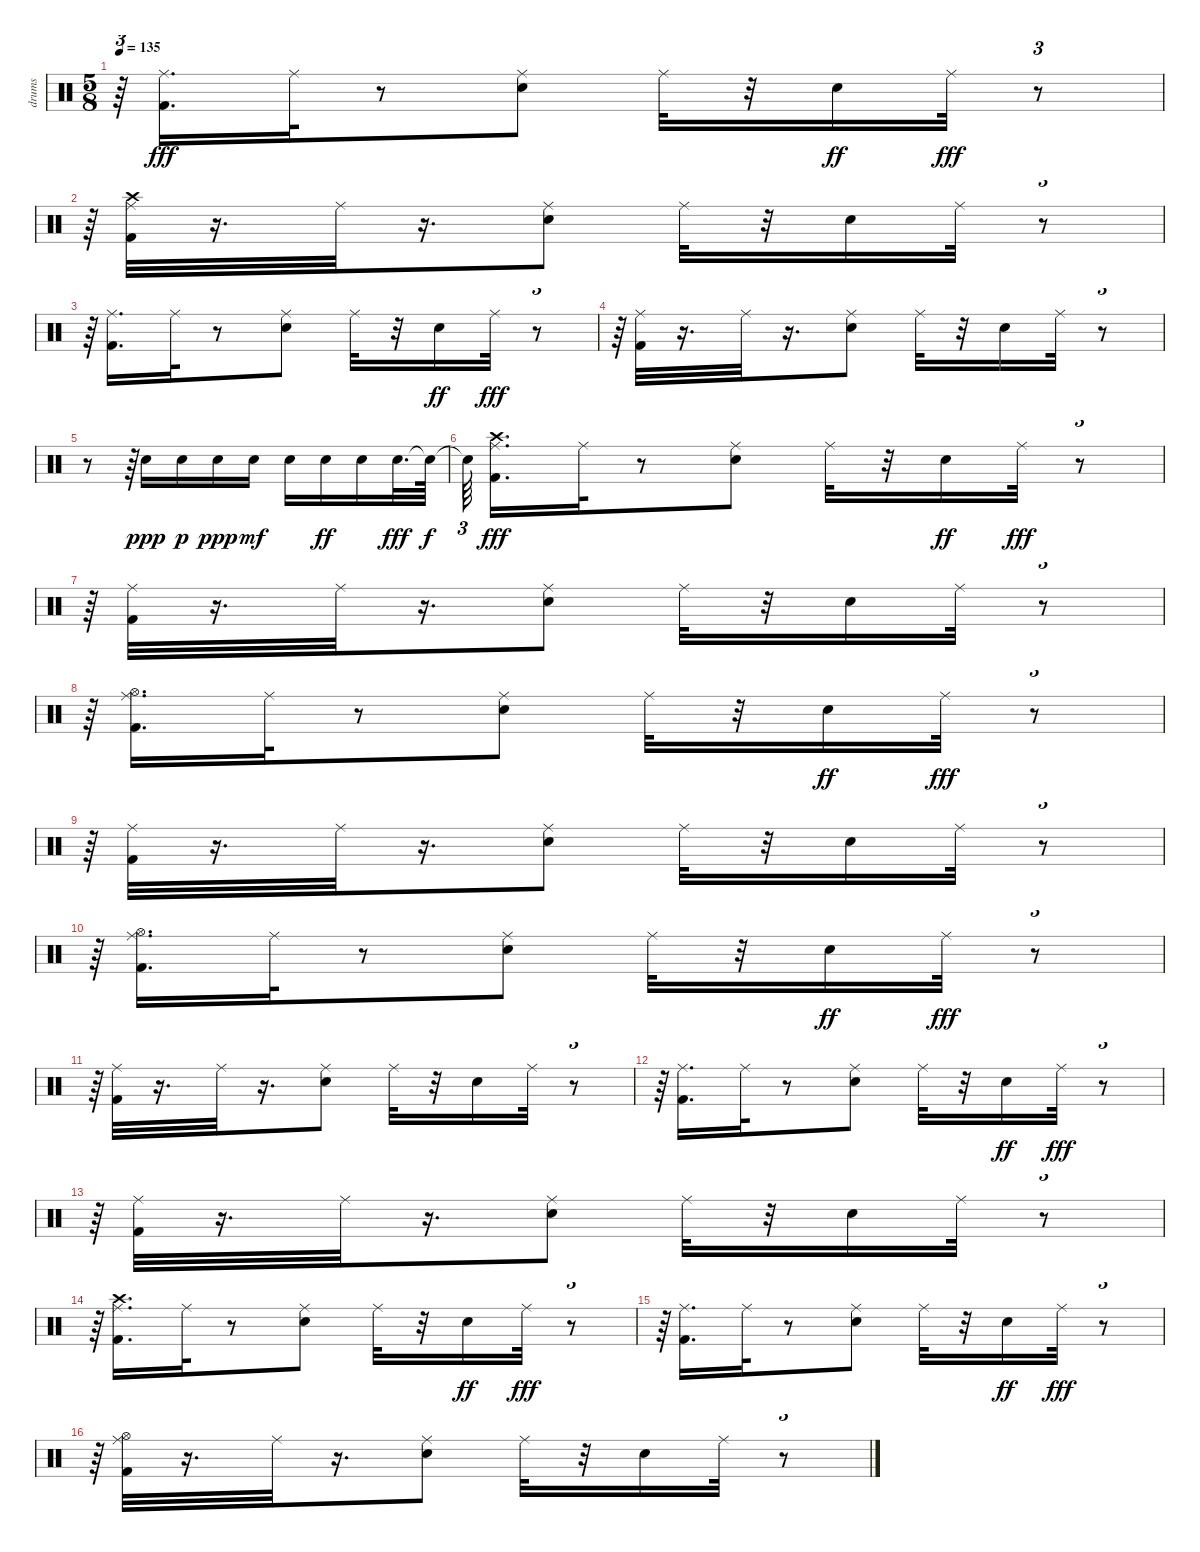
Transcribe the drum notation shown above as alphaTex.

\track ("drums               " "drums     ") {instrument percussion}
\staff {score}
\articulation defaults
\ts (5 8)
\tempo 135
\clef neutral
\ks c
r.64{tu (3 2) dy fff} ("Kick (hit) 2" "Ride (middle)").16{d} "Ride (middle)".32 r.8 ("Snare (hit) 2" "Ride (middle)").8 "Ride (middle)".32 r.32 "Snare (hit) 2".16{dy ff} "Ride (middle)".32{dy fff} r.8{tu (3 2)} |
r.64{tu (3 2)} ("Kick (hit) 2" "Crash high (hit)" "Ride (middle)").32 r.16{d} "Ride (middle)".32 r.16{d} ("Snare (hit) 2" "Ride (middle)").8 "Ride (middle)".32 r.32 "Snare (hit) 2".16 "Ride (middle)".32 r.8{tu (3 2)} |
r.64{tu (3 2)} ("Kick (hit) 2" "Ride (middle)").16{d} "Ride (middle)".32 r.8 ("Snare (hit) 2" "Ride (middle)").8 "Ride (middle)".32 r.32 "Snare (hit) 2".16{dy ff} "Ride (middle)".32{dy fff} r.8{tu (3 2)} |
r.64{tu (3 2)} ("Kick (hit) 2" "Ride (middle)").32 r.16{d} "Ride (middle)".32 r.16{d} ("Snare (hit) 2" "Ride (middle)").8 "Ride (middle)".32 r.32 "Snare (hit) 2".16 "Ride (middle)".32 r.8{tu (3 2)} |
r.8 r.64{tu (3 2)} "Snare (hit) 2".16{dy ppp} "Snare (hit) 2".16{dy p} "Snare (hit) 2".16{dy ppp} "Snare (hit) 2".16{dy mf} "Snare (hit) 2".16 "Snare (hit) 2".16{dy ff} "Snare (hit) 2".16 "Snare (hit) 2".32{d dy fff} "Snare (hit)"{t}.64{dy f} |
"Snare (hit)"{t}.64{tu (3 2)} ("Kick (hit) 2" "Crash high (hit)" "Ride (middle)").16{d dy fff} "Ride (middle)".32 r.8 ("Snare (hit) 2" "Ride (middle)").8 "Ride (middle)".32 r.32 "Snare (hit) 2".16{dy ff} "Ride (middle)".32{dy fff} r.8{tu (3 2)} |
r.64{tu (3 2)} ("Kick (hit) 2" "Ride (middle)").32 r.16{d} "Ride (middle)".32 r.16{d} ("Snare (hit) 2" "Ride (middle)").8 "Ride (middle)".32 r.32 "Snare (hit) 2".16 "Ride (middle)".32 r.8{tu (3 2)} |
r.64{tu (3 2)} ("Kick (hit) 2" "Hi-Hat (open)" "Ride (middle)").16{d} "Ride (middle)".32 r.8 ("Snare (hit) 2" "Ride (middle)").8 "Ride (middle)".32 r.32 "Snare (hit) 2".16{dy ff} "Ride (middle)".32{dy fff} r.8{tu (3 2)} |
r.64{tu (3 2)} ("Kick (hit) 2" "Ride (middle)").32 r.16{d} "Ride (middle)".32 r.16{d} ("Snare (hit) 2" "Ride (middle)").8 "Ride (middle)".32 r.32 "Snare (hit) 2".16 "Ride (middle)".32 r.8{tu (3 2)} |
r.64{tu (3 2)} ("Kick (hit) 2" "Hi-Hat (open)" "Ride (middle)").16{d} "Ride (middle)".32 r.8 ("Snare (hit) 2" "Ride (middle)").8 "Ride (middle)".32 r.32 "Snare (hit) 2".16{dy ff} "Ride (middle)".32{dy fff} r.8{tu (3 2)} |
r.64{tu (3 2)} ("Kick (hit) 2" "Ride (middle)").32 r.16{d} "Ride (middle)".32 r.16{d} ("Snare (hit) 2" "Ride (middle)").8 "Ride (middle)".32 r.32 "Snare (hit) 2".16 "Ride (middle)".32 r.8{tu (3 2)} |
r.64{tu (3 2)} ("Kick (hit) 2" "Ride (middle)").16{d} "Ride (middle)".32 r.8 ("Snare (hit) 2" "Ride (middle)").8 "Ride (middle)".32 r.32 "Snare (hit) 2".16{dy ff} "Ride (middle)".32{dy fff} r.8{tu (3 2)} |
r.64{tu (3 2)} ("Kick (hit) 2" "Ride (middle)").32 r.16{d} "Ride (middle)".32 r.16{d} ("Snare (hit) 2" "Ride (middle)").8 "Ride (middle)".32 r.32 "Snare (hit) 2".16 "Ride (middle)".32 r.8{tu (3 2)} |
r.64{tu (3 2)} ("Kick (hit) 2" "Crash high (hit)" "Ride (middle)").16{d} "Ride (middle)".32 r.8 ("Snare (hit) 2" "Ride (middle)").8 "Ride (middle)".32 r.32 "Snare (hit) 2".16{dy ff} "Ride (middle)".32{dy fff} r.8{tu (3 2)} |
r.64{tu (3 2)} ("Kick (hit) 2" "Ride (middle)").16{d} "Ride (middle)".32 r.8 ("Snare (hit) 2" "Ride (middle)").8 "Ride (middle)".32 r.32 "Snare (hit) 2".16{dy ff} "Ride (middle)".32{dy fff} r.8{tu (3 2)} |
r.64{tu (3 2)} ("Kick (hit) 2" "Hi-Hat (open)" "Ride (middle)").32 r.16{d} "Ride (middle)".32 r.16{d} ("Snare (hit) 2" "Ride (middle)").8 "Ride (middle)".32 r.32 "Snare (hit) 2".16 "Ride (middle)".32 r.8{tu (3 2)}
